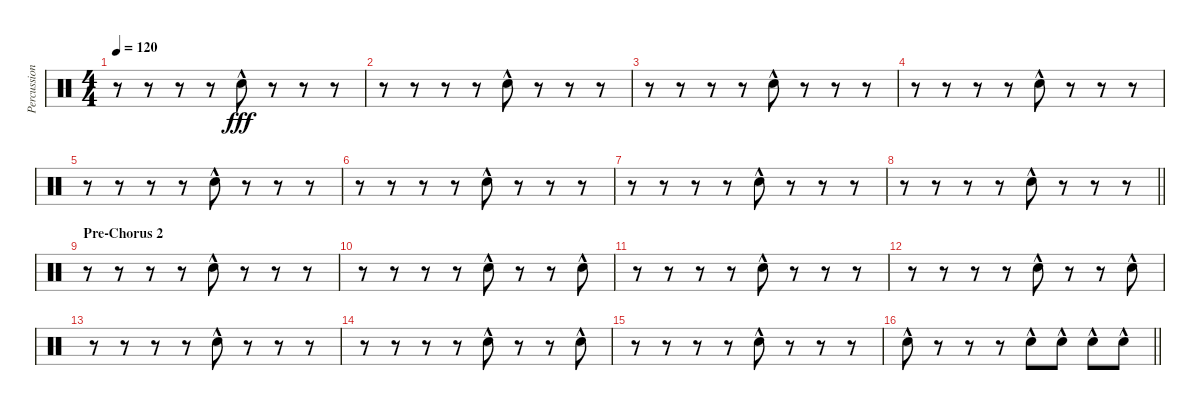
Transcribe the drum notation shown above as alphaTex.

\track ("Percussion" "Percussion") {instrument percussion}
\staff {score}
\articulation defaults
\ts (4 4)
\tempo 120
\clef neutral
\ks c
r.8{dy fff} r.8 r.8 r.8 "Snare (hit) 2"{hac}.8 r.8 r.8 r.8 |
r.8 r.8 r.8 r.8 "Snare (hit) 2"{hac}.8 r.8 r.8 r.8 |
r.8 r.8 r.8 r.8 "Snare (hit) 2"{hac}.8 r.8 r.8 r.8 |
r.8 r.8 r.8 r.8 "Snare (hit) 2"{hac}.8 r.8 r.8 r.8 |
r.8 r.8 r.8 r.8 "Snare (hit) 2"{hac}.8 r.8 r.8 r.8 |
r.8 r.8 r.8 r.8 "Snare (hit) 2"{hac}.8 r.8 r.8 r.8 |
r.8 r.8 r.8 r.8 "Snare (hit) 2"{hac}.8 r.8 r.8 r.8 |
\barLineRight lightlight
r.8 r.8 r.8 r.8 "Snare (hit) 2"{hac}.8 r.8 r.8 r.8 |
\section ("" "Pre-Chorus 2")
r.8 r.8 r.8 r.8 "Snare (hit) 2"{hac}.8 r.8 r.8 r.8 |
r.8 r.8 r.8 r.8 "Snare (hit) 2"{hac}.8 r.8 r.8 "Snare (hit) 2"{hac}.8 |
r.8 r.8 r.8 r.8 "Snare (hit) 2"{hac}.8 r.8 r.8 r.8 |
r.8 r.8 r.8 r.8 "Snare (hit) 2"{hac}.8 r.8 r.8 "Snare (hit) 2"{hac}.8 |
r.8 r.8 r.8 r.8 "Snare (hit) 2"{hac}.8 r.8 r.8 r.8 |
r.8 r.8 r.8 r.8 "Snare (hit) 2"{hac}.8 r.8 r.8 "Snare (hit) 2"{hac}.8 |
r.8 r.8 r.8 r.8 "Snare (hit) 2"{hac}.8 r.8 r.8 r.8 |
\barLineRight lightlight "Snare (hit) 2"{hac}.8
r.8 r.8 r.8 "Snare (hit) 2"{hac}.8 "Snare (hit) 2"{hac}.8 "Snare (hit) 2"{hac}.8 "Snare (hit) 2"{hac}.8
